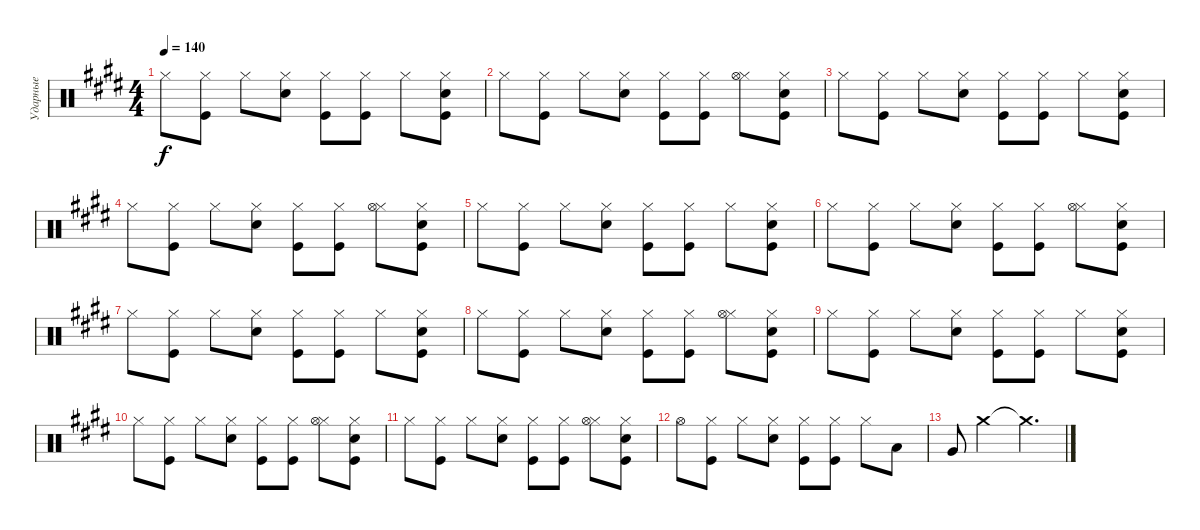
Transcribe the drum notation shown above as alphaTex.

\track ("Ударные" "Ударные") {instrument percussion}
\staff {score}
\articulation defaults
\ts (4 4)
\tempo 140
\clef neutral
\ks c#minor "Hi-Hat (closed)".8{dy f}
("Hi-Hat (closed)" "Kick (hit)").8 "Hi-Hat (closed)".8 ("Hi-Hat (closed)" "Snare (hit) 2").8 ("Hi-Hat (closed)" "Kick (hit)").8 ("Hi-Hat (closed)" "Kick (hit)").8 "Hi-Hat (closed)".8 ("Hi-Hat (closed)" "Kick (hit)" "Snare (hit) 2").8 |
"Hi-Hat (closed)".8 ("Hi-Hat (closed)" "Kick (hit)").8 "Hi-Hat (closed)".8 ("Hi-Hat (closed)" "Snare (hit) 2").8 ("Hi-Hat (closed)" "Kick (hit)").8 ("Hi-Hat (closed)" "Kick (hit)").8 ("Hi-Hat (closed)" "Hi-Hat (open)").8 ("Hi-Hat (closed)" "Kick (hit)" "Snare (hit) 2").8 |
"Hi-Hat (closed)".8 ("Hi-Hat (closed)" "Kick (hit)").8 "Hi-Hat (closed)".8 ("Hi-Hat (closed)" "Snare (hit) 2").8 ("Hi-Hat (closed)" "Kick (hit)").8 ("Hi-Hat (closed)" "Kick (hit)").8 "Hi-Hat (closed)".8 ("Hi-Hat (closed)" "Kick (hit)" "Snare (hit) 2").8 |
"Hi-Hat (closed)".8 ("Hi-Hat (closed)" "Kick (hit)").8 "Hi-Hat (closed)".8 ("Hi-Hat (closed)" "Snare (hit) 2").8 ("Hi-Hat (closed)" "Kick (hit)").8 ("Hi-Hat (closed)" "Kick (hit)").8 ("Hi-Hat (closed)" "Hi-Hat (open)").8 ("Hi-Hat (closed)" "Kick (hit)" "Snare (hit) 2").8 |
"Hi-Hat (closed)".8 ("Hi-Hat (closed)" "Kick (hit)").8 "Hi-Hat (closed)".8 ("Hi-Hat (closed)" "Snare (hit) 2").8 ("Hi-Hat (closed)" "Kick (hit)").8 ("Hi-Hat (closed)" "Kick (hit)").8 "Hi-Hat (closed)".8 ("Hi-Hat (closed)" "Kick (hit)" "Snare (hit) 2").8 |
"Hi-Hat (closed)".8 ("Hi-Hat (closed)" "Kick (hit)").8 "Hi-Hat (closed)".8 ("Hi-Hat (closed)" "Snare (hit) 2").8 ("Hi-Hat (closed)" "Kick (hit)").8 ("Hi-Hat (closed)" "Kick (hit)").8 ("Hi-Hat (closed)" "Hi-Hat (open)").8 ("Hi-Hat (closed)" "Kick (hit)" "Snare (hit) 2").8 |
"Hi-Hat (closed)".8 ("Hi-Hat (closed)" "Kick (hit)").8 "Hi-Hat (closed)".8 ("Hi-Hat (closed)" "Snare (hit) 2").8 ("Hi-Hat (closed)" "Kick (hit)").8 ("Hi-Hat (closed)" "Kick (hit)").8 "Hi-Hat (closed)".8 ("Hi-Hat (closed)" "Kick (hit)" "Snare (hit) 2").8 |
"Hi-Hat (closed)".8 ("Hi-Hat (closed)" "Kick (hit)").8 "Hi-Hat (closed)".8 ("Hi-Hat (closed)" "Snare (hit) 2").8 ("Hi-Hat (closed)" "Kick (hit)").8 ("Hi-Hat (closed)" "Kick (hit)").8 ("Hi-Hat (closed)" "Hi-Hat (open)").8 ("Hi-Hat (closed)" "Kick (hit)" "Snare (hit) 2").8 |
"Hi-Hat (closed)".8 ("Hi-Hat (closed)" "Kick (hit)").8 "Hi-Hat (closed)".8 ("Hi-Hat (closed)" "Snare (hit) 2").8 ("Hi-Hat (closed)" "Kick (hit)").8 ("Hi-Hat (closed)" "Kick (hit)").8 "Hi-Hat (closed)".8 ("Hi-Hat (closed)" "Kick (hit)" "Snare (hit) 2").8 |
"Hi-Hat (closed)".8 ("Hi-Hat (closed)" "Kick (hit)").8 "Hi-Hat (closed)".8 ("Hi-Hat (closed)" "Snare (hit) 2").8 ("Hi-Hat (closed)" "Kick (hit)").8 ("Hi-Hat (closed)" "Kick (hit)").8 ("Hi-Hat (closed)" "Hi-Hat (open)").8 ("Hi-Hat (closed)" "Kick (hit)" "Snare (hit) 2").8 |
"Hi-Hat (closed)".8 ("Hi-Hat (closed)" "Kick (hit)").8 "Hi-Hat (closed)".8 ("Hi-Hat (closed)" "Snare (hit) 2").8 ("Hi-Hat (closed)" "Kick (hit)").8 ("Hi-Hat (closed)" "Kick (hit)").8 ("Hi-Hat (closed)" "Hi-Hat (open)").8 ("Hi-Hat (closed)" "Kick (hit)" "Snare (hit) 2").8 |
"Hi-Hat (open)".8 ("Hi-Hat (closed)" "Kick (hit)").8 "Hi-Hat (closed)".8 ("Hi-Hat (closed)" "Snare (hit) 2").8 ("Hi-Hat (closed)" "Kick (hit)").8 ("Hi-Hat (closed)" "Kick (hit)").8 "Hi-Hat (closed)".8 "Low Tom (hit)".8 |
"Very Low Tom (hit)".8 "Crash medium (hit)".2 "Crash medium (hit)"{t}.4{d}
